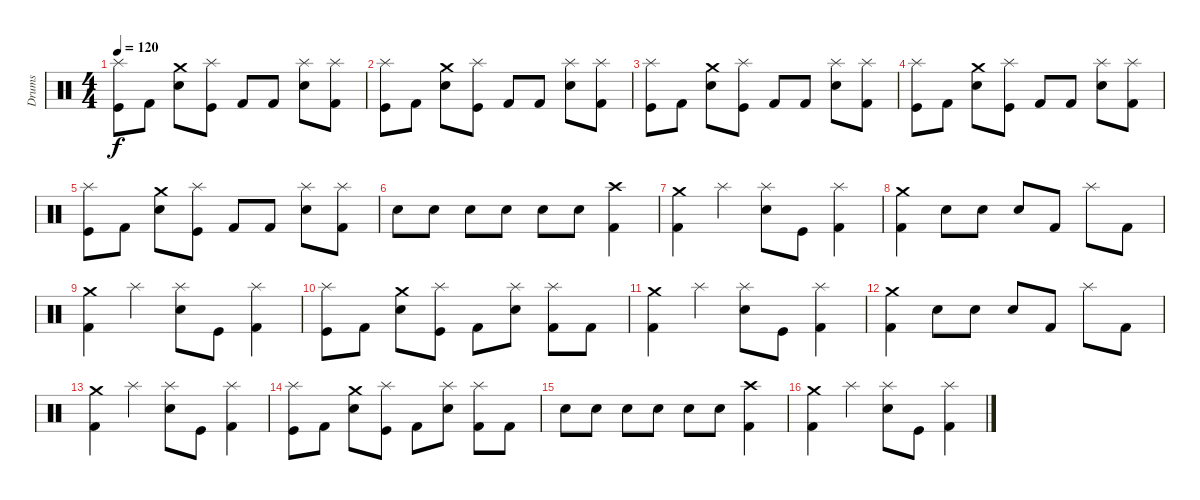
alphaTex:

\track ("Drums" "Drums") {instrument percussion}
\staff {score}
\articulation defaults
\ts (4 4)
\tempo 120
\clef neutral
\ks c
("Splash (hit)" "Kick (hit)").8{dy f} "Kick (hit) 2".8 ("Crash medium (hit)" "Snare (hit) 2").8 ("Splash (hit)" "Kick (hit)").8 "Kick (hit) 2".8 "Kick (hit) 2".8 ("Splash (hit)" "Snare (hit) 2").8 ("Splash (hit)" "Kick (hit) 2").8 |
("Splash (hit)" "Kick (hit)").8 "Kick (hit) 2".8 ("Crash medium (hit)" "Snare (hit) 2").8 ("Splash (hit)" "Kick (hit)").8 "Kick (hit) 2".8 "Kick (hit) 2".8 ("Splash (hit)" "Snare (hit) 2").8 ("Splash (hit)" "Kick (hit) 2").8 |
("Splash (hit)" "Kick (hit)").8 "Kick (hit) 2".8 ("Crash medium (hit)" "Snare (hit) 2").8 ("Splash (hit)" "Kick (hit)").8 "Kick (hit) 2".8 "Kick (hit) 2".8 ("Splash (hit)" "Snare (hit) 2").8 ("Splash (hit)" "Kick (hit) 2").8 |
("Splash (hit)" "Kick (hit)").8 "Kick (hit) 2".8 ("Crash medium (hit)" "Snare (hit) 2").8 ("Splash (hit)" "Kick (hit)").8 "Kick (hit) 2".8 "Kick (hit) 2".8 ("Splash (hit)" "Snare (hit) 2").8 ("Splash (hit)" "Kick (hit) 2").8 |
("Splash (hit)" "Kick (hit)").8 "Kick (hit) 2".8 ("Crash medium (hit)" "Snare (hit) 2").8 ("Splash (hit)" "Kick (hit)").8 "Kick (hit) 2".8 "Kick (hit) 2".8 ("Splash (hit)" "Snare (hit) 2").8 ("Splash (hit)" "Kick (hit) 2").8 |
"Snare (hit) 2".8 "Snare (hit) 2".8 "Snare (hit) 2".8 "Snare (hit) 2".8 "Snare (hit) 2".8 "Snare (hit) 2".8 ("Crash high (hit)" "Kick (hit) 2").4 |
("Crash medium (hit)" "Kick (hit) 2").4 "Splash (hit)".4 ("Splash (hit)" "Snare (hit) 2").8 "Kick (hit)".8 ("Splash (hit)" "Kick (hit) 2").4 |
("Crash medium (hit)" "Kick (hit) 2").4 "Snare (hit) 2".8 "Snare (hit) 2".8 "Snare (hit) 2".8 "Kick (hit) 2".8 "Splash (hit)".8 "Kick (hit) 2".8 |
("Crash medium (hit)" "Kick (hit) 2").4 "Splash (hit)".4 ("Splash (hit)" "Snare (hit) 2").8 "Kick (hit)".8 ("Splash (hit)" "Kick (hit) 2").4 |
("Splash (hit)" "Kick (hit)").8 "Kick (hit) 2".8 ("Crash medium (hit)" "Snare (hit) 2").8 ("Splash (hit)" "Kick (hit)").8 "Kick (hit) 2".8 ("Splash (hit)" "Snare (hit) 2").8 ("Splash (hit)" "Kick (hit) 2").8 "Kick (hit) 2".8 |
("Crash medium (hit)" "Kick (hit) 2").4 "Splash (hit)".4 ("Splash (hit)" "Snare (hit) 2").8 "Kick (hit)".8 ("Splash (hit)" "Kick (hit) 2").4 |
("Crash medium (hit)" "Kick (hit) 2").4 "Snare (hit) 2".8 "Snare (hit) 2".8 "Snare (hit) 2".8 "Kick (hit) 2".8 "Splash (hit)".8 "Kick (hit) 2".8 |
("Crash medium (hit)" "Kick (hit) 2").4 "Splash (hit)".4 ("Splash (hit)" "Snare (hit) 2").8 "Kick (hit)".8 ("Splash (hit)" "Kick (hit) 2").4 |
("Splash (hit)" "Kick (hit)").8 "Kick (hit) 2".8 ("Crash medium (hit)" "Snare (hit) 2").8 ("Splash (hit)" "Kick (hit)").8 "Kick (hit) 2".8 ("Splash (hit)" "Snare (hit) 2").8 ("Splash (hit)" "Kick (hit) 2").8 "Kick (hit) 2".8 |
"Snare (hit) 2".8 "Snare (hit) 2".8 "Snare (hit) 2".8 "Snare (hit) 2".8 "Snare (hit) 2".8 "Snare (hit) 2".8 ("Crash high (hit)" "Kick (hit) 2").4 |
("Crash medium (hit)" "Kick (hit) 2").4 "Splash (hit)".4 ("Splash (hit)" "Snare (hit) 2").8 "Kick (hit)".8 ("Splash (hit)" "Kick (hit) 2").4
